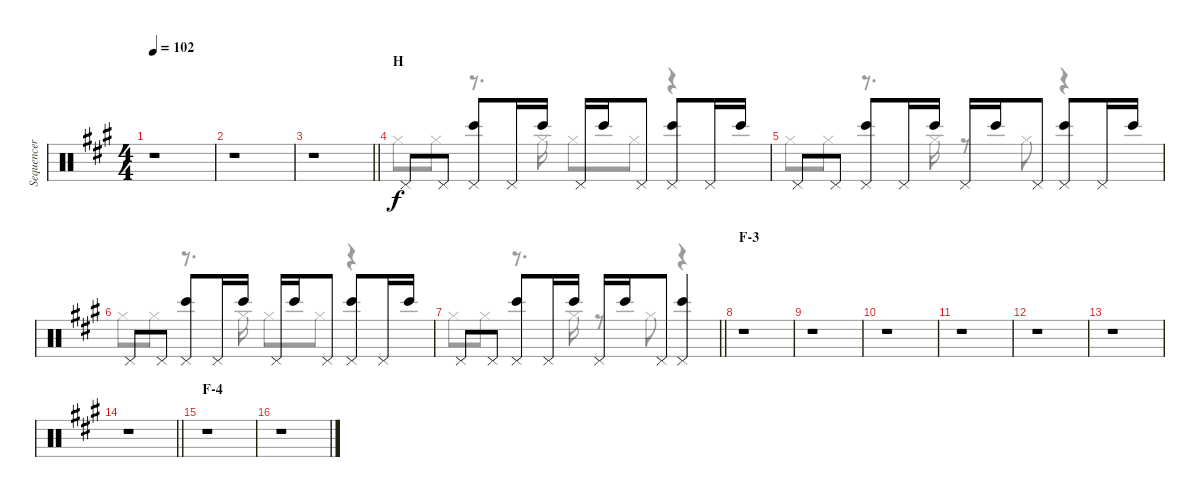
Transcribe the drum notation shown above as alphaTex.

\track ("Sequencer" "Sequencer") {instrument percussion}
\staff {score}
\articulation defaults
\voice
\ts (4 4)
\tempo 102
\clef neutral
\ks a
r.1{dy f} |
r.1 |
\barLineRight lightlight
r.1 |
\section ("" "H")
"Pedal Hi-Hat (hit)".8 "Pedal Hi-Hat (hit)".8 ("Pedal Hi-Hat (hit)" "Bongo High (hit)").8 "Pedal Hi-Hat (hit)".16 "Bongo High (hit)".16 "Pedal Hi-Hat (hit)".16 "Bongo High (hit)".16 "Pedal Hi-Hat (hit)".8 ("Pedal Hi-Hat (hit)" "Bongo High (hit)").8 "Pedal Hi-Hat (hit)".16 "Bongo High (hit)".16 |
"Pedal Hi-Hat (hit)".8 "Pedal Hi-Hat (hit)".8 ("Pedal Hi-Hat (hit)" "Bongo High (hit)").8 "Pedal Hi-Hat (hit)".16 "Bongo High (hit)".16 "Pedal Hi-Hat (hit)".16 "Bongo High (hit)".16 "Pedal Hi-Hat (hit)".8 ("Pedal Hi-Hat (hit)" "Bongo High (hit)").8 "Pedal Hi-Hat (hit)".16 "Bongo High (hit)".16 |
"Pedal Hi-Hat (hit)".8 "Pedal Hi-Hat (hit)".8 ("Pedal Hi-Hat (hit)" "Bongo High (hit)").8 "Pedal Hi-Hat (hit)".16 "Bongo High (hit)".16 "Pedal Hi-Hat (hit)".16 "Bongo High (hit)".16 "Pedal Hi-Hat (hit)".8 ("Pedal Hi-Hat (hit)" "Bongo High (hit)").8 "Pedal Hi-Hat (hit)".16 "Bongo High (hit)".16 |
\barLineRight lightlight "Pedal Hi-Hat (hit)".8 "Pedal Hi-Hat (hit)".8
("Pedal Hi-Hat (hit)" "Bongo High (hit)").8 "Pedal Hi-Hat (hit)".16 "Bongo High (hit)".16 "Pedal Hi-Hat (hit)".16 "Bongo High (hit)".16 "Pedal Hi-Hat (hit)".8 ("Pedal Hi-Hat (hit)" "Bongo High (hit)").4 |
\section ("" "F-3")
r.1 |
r.1 |
r.1 |
r.1 |
r.1 |
r.1 |
\barLineRight lightlight
r.1 |
\section ("" "F-4")
r.1 |
r.1
\voice
\clef neutral
\ottava regular
\simile none
\ks a
r.1{dy f} |
r.1 |
\barLineRight lightlight
r.1 |
"Hi-Hat (closed)".8 "Hi-Hat (closed)".8 r.8{d} "Hi-Hat (closed)".16 "Hi-Hat (closed)".8 "Hi-Hat (closed)".8 r.4 |
"Hi-Hat (closed)".8 "Hi-Hat (closed)".8 r.8{d} "Hi-Hat (closed)".16 r.8 "Hi-Hat (closed)".8 r.4 |
"Hi-Hat (closed)".8 "Hi-Hat (closed)".8 r.8{d} "Hi-Hat (closed)".16 "Hi-Hat (closed)".8 "Hi-Hat (closed)".8 r.4 |
\barLineRight lightlight "Hi-Hat (closed)".8 "Hi-Hat (closed)".8
r.8{d} "Hi-Hat (closed)".16 r.8 "Hi-Hat (closed)".8 r.4 |
r.1 |
r.1 |
r.1 |
r.1 |
r.1 |
r.1 |
\barLineRight lightlight
r.1 |
r.1 |
r.1
